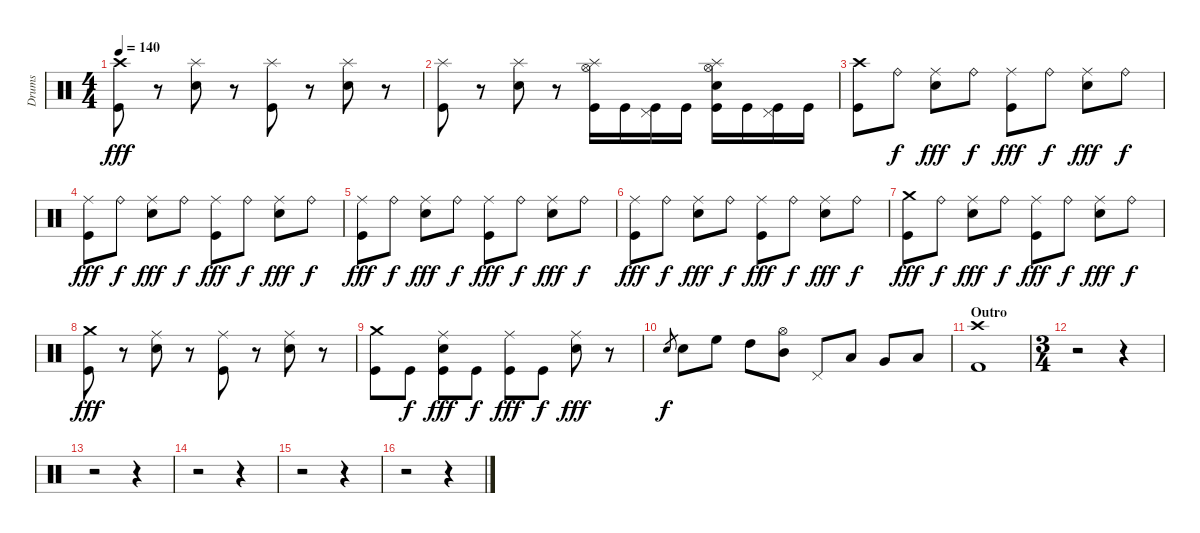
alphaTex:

\track ("Drums" "Drums") {instrument percussion}
\staff {score}
\articulation defaults
\ts (4 4)
\tempo 140
\clef neutral
\ks c
("Crash high (hit)" "Kick (hit)").8{dy fff} r.8 ("Splash (hit)" "Electric Snare (hit)").8 r.8 ("Splash (hit)" "Kick (hit)").8 r.8 ("Splash (hit)" "Electric Snare (hit)").8 r.8 |
("Splash (hit)" "Kick (hit)").8 r.8 ("Splash (hit)" "Electric Snare (hit)").8 r.8 ("Splash (hit)" "Hi-Hat (open)" "Kick (hit)").16 "Kick (hit)".16 ("Pedal Hi-Hat (hit)" "Kick (hit)").16 "Kick (hit)".16 ("Splash (hit)" "Hi-Hat (open)" "Electric Snare (hit)" "Kick (hit)").16 "Kick (hit)".16 ("Pedal Hi-Hat (hit)" "Kick (hit)").16 "Kick (hit)".16 |
("Crash high (hit)" "Kick (hit)").8 "Ride (bell)".8{dy f} ("Ride (middle)" "Electric Snare (hit)").8{dy fff} "Ride (bell)".8{dy f} ("Ride (middle)" "Kick (hit)").8{dy fff} "Ride (bell)".8{dy f} ("Ride (middle)" "Electric Snare (hit)").8{dy fff} "Ride (bell)".8{dy f} |
("Ride (middle)" "Kick (hit)").8{dy fff} "Ride (bell)".8{dy f} ("Ride (middle)" "Electric Snare (hit)").8{dy fff} "Ride (bell)".8{dy f} ("Ride (middle)" "Kick (hit)").8{dy fff} "Ride (bell)".8{dy f} ("Ride (middle)" "Electric Snare (hit)").8{dy fff} "Ride (bell)".8{dy f} |
("Ride (middle)" "Kick (hit)").8{dy fff} "Ride (bell)".8{dy f} ("Ride (middle)" "Electric Snare (hit)").8{dy fff} "Ride (bell)".8{dy f} ("Ride (middle)" "Kick (hit)").8{dy fff} "Ride (bell)".8{dy f} ("Ride (middle)" "Electric Snare (hit)").8{dy fff} "Ride (bell)".8{dy f} |
("Ride (middle)" "Kick (hit)").8{dy fff} "Ride (bell)".8{dy f} ("Ride (middle)" "Electric Snare (hit)").8{dy fff} "Ride (bell)".8{dy f} ("Ride (middle)" "Kick (hit)").8{dy fff} "Ride (bell)".8{dy f} ("Ride (middle)" "Electric Snare (hit)").8{dy fff} "Ride (bell)".8{dy f} |
("Crash medium (hit)" "Kick (hit)").8{dy fff} "Ride (bell)".8{dy f} ("Ride (middle)" "Electric Snare (hit)").8{dy fff} "Ride (bell)".8{dy f} ("Ride (middle)" "Kick (hit)").8{dy fff} "Ride (bell)".8{dy f} ("Ride (middle)" "Electric Snare (hit)").8{dy fff} "Ride (bell)".8{dy f} |
("Crash medium (hit)" "Kick (hit)").8{dy fff} r.8 ("Ride (middle)" "Electric Snare (hit)").8 r.8 ("Ride (middle)" "Kick (hit)").8 r.8 ("Ride (middle)" "Electric Snare (hit)").8 r.8 |
("Crash medium (hit)" "Kick (hit)").8 "Kick (hit)".8{dy f} ("Ride (middle)" "Electric Snare (hit)" "Kick (hit)").8{dy fff} "Kick (hit)".8{dy f} ("Ride (middle)" "Kick (hit)").8{dy fff} "Kick (hit)".8{dy f} ("Ride (middle)" "Electric Snare (hit)").8{dy fff} r.8 |
"Electric Snare (hit)".8{gr dy f} "Electric Snare (hit)".8 "High Floor Tom (hit)".8 "High Tom (hit)".8 ("Hi-Hat (open)" "Mid Tom (hit)").8 "Pedal Hi-Hat (hit)".8 "Low Tom (hit)".8 "Very Low Tom (hit)".8 "Low Floor Tom (hit)".8 |
\section ("" "Outro")
("Crash high (hit)" "Kick (hit) 2").1 |
\ts (3 4)
r.2 r.4 |
r.2 r.4 |
r.2 r.4 |
r.2 r.4 |
r.2 r.4
